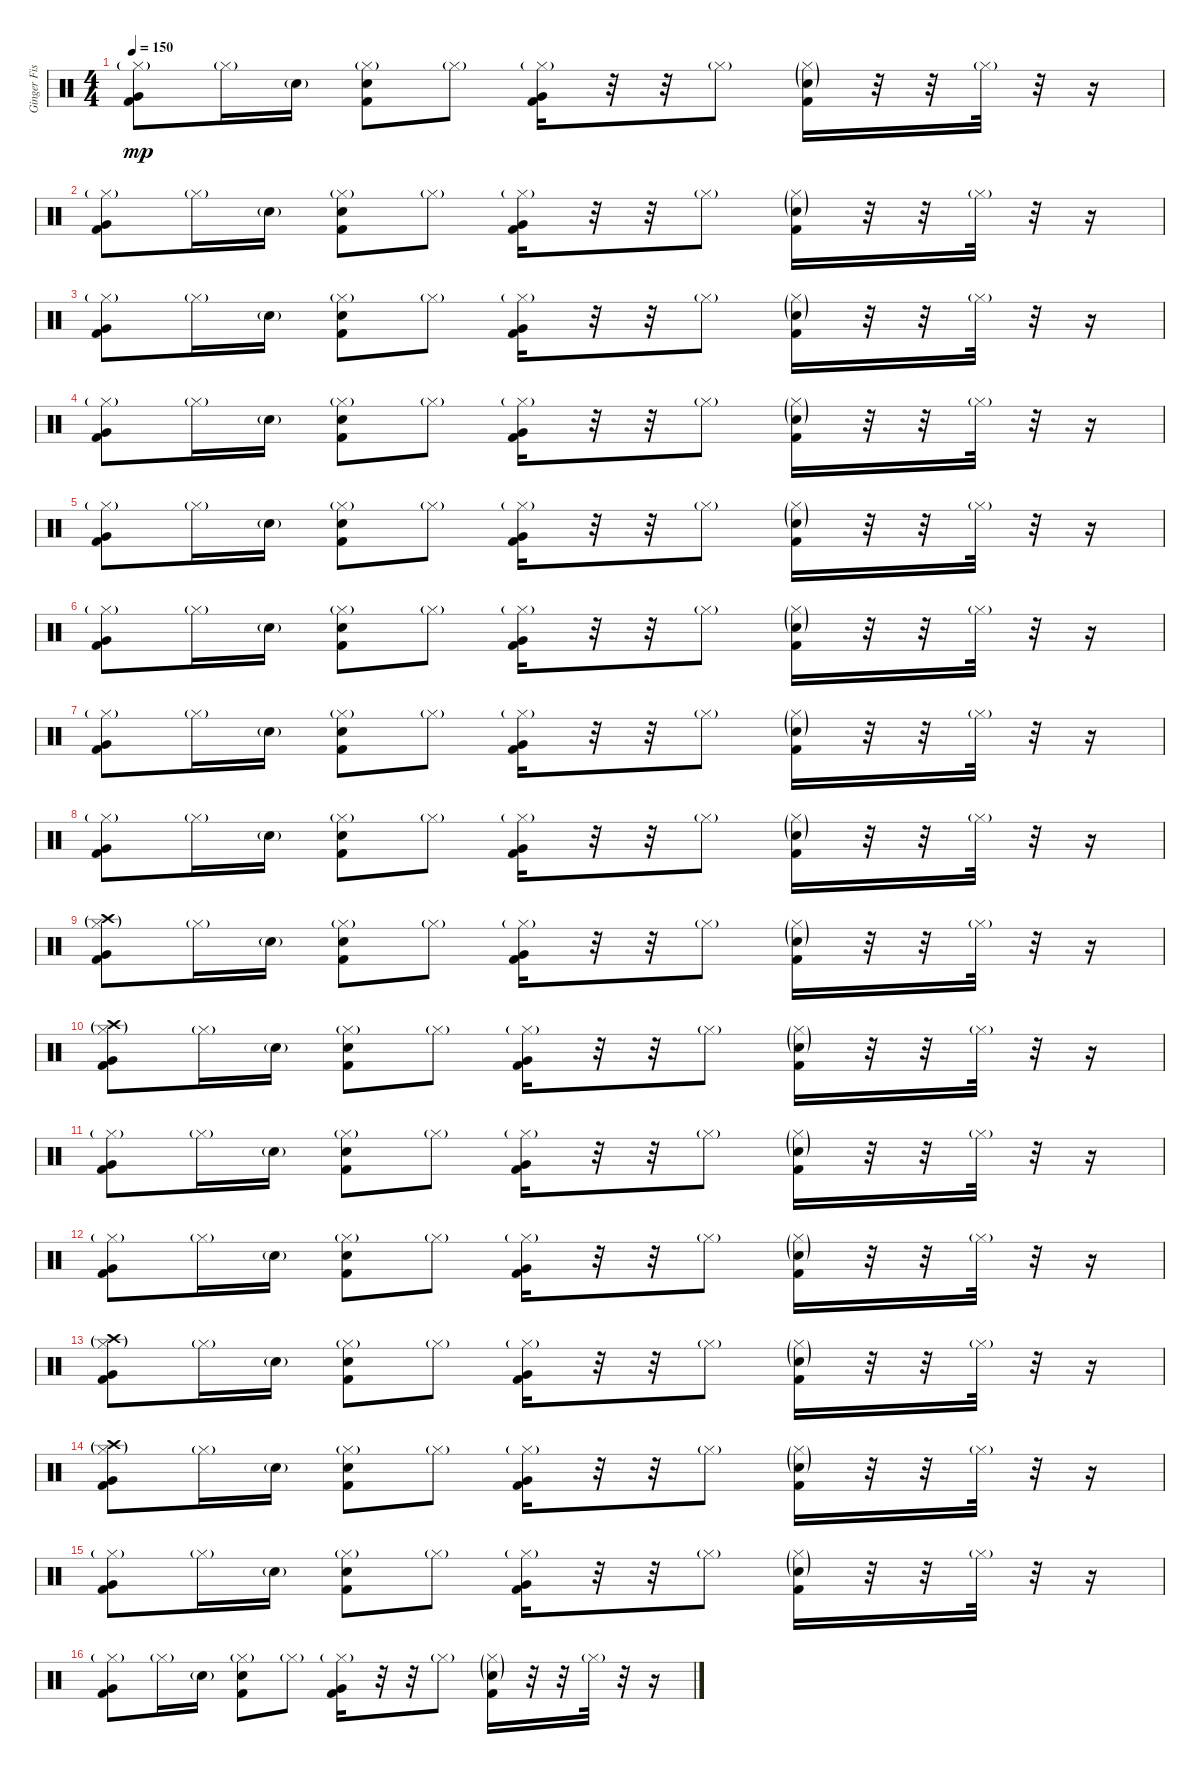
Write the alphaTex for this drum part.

\track ("Ginger Fish" "Ginger Fis") {instrument percussion}
\staff {score}
\articulation defaults
\ts (4 4)
\tempo 150
\clef neutral
\ks c
("Hi-Hat (closed)"{g} "Very Low Tom (hit)" "Kick (hit) 2").8{dy mp} "Hi-Hat (closed)"{g}.16 "Electric Snare (hit)"{g}.16 ("Hi-Hat (closed)"{g} "Electric Snare (hit)" "Kick (hit) 2").8 "Hi-Hat (closed)"{g}.8 ("Hi-Hat (closed)"{g} "Very Low Tom (hit)" "Kick (hit) 2").16 r.32 r.32 "Hi-Hat (closed)"{g}.8 ("Hi-Hat (closed)"{g} "Electric Snare (hit)"{g} "Kick (hit) 2").16 r.32 r.32 "Hi-Hat (closed)"{g}.32 r.32 r.16 |
("Hi-Hat (closed)"{g} "Very Low Tom (hit)" "Kick (hit) 2").8 "Hi-Hat (closed)"{g}.16 "Electric Snare (hit)"{g}.16 ("Hi-Hat (closed)"{g} "Electric Snare (hit)" "Kick (hit) 2").8 "Hi-Hat (closed)"{g}.8 ("Hi-Hat (closed)"{g} "Very Low Tom (hit)" "Kick (hit) 2").16 r.32 r.32 "Hi-Hat (closed)"{g}.8 ("Hi-Hat (closed)"{g} "Electric Snare (hit)"{g} "Kick (hit) 2").16 r.32 r.32 "Hi-Hat (closed)"{g}.32 r.32 r.16 |
("Hi-Hat (closed)"{g} "Very Low Tom (hit)" "Kick (hit) 2").8 "Hi-Hat (closed)"{g}.16 "Electric Snare (hit)"{g}.16 ("Hi-Hat (closed)"{g} "Electric Snare (hit)" "Kick (hit) 2").8 "Hi-Hat (closed)"{g}.8 ("Hi-Hat (closed)"{g} "Very Low Tom (hit)" "Kick (hit) 2").16 r.32 r.32 "Hi-Hat (closed)"{g}.8 ("Hi-Hat (closed)"{g} "Electric Snare (hit)"{g} "Kick (hit) 2").16 r.32 r.32 "Hi-Hat (closed)"{g}.32 r.32 r.16 |
("Hi-Hat (closed)"{g} "Very Low Tom (hit)" "Kick (hit) 2").8 "Hi-Hat (closed)"{g}.16 "Electric Snare (hit)"{g}.16 ("Hi-Hat (closed)"{g} "Electric Snare (hit)" "Kick (hit) 2").8 "Hi-Hat (closed)"{g}.8 ("Hi-Hat (closed)"{g} "Very Low Tom (hit)" "Kick (hit) 2").16 r.32 r.32 "Hi-Hat (closed)"{g}.8 ("Hi-Hat (closed)"{g} "Electric Snare (hit)"{g} "Kick (hit) 2").16 r.32 r.32 "Hi-Hat (closed)"{g}.32 r.32 r.16 |
("Hi-Hat (closed)"{g} "Very Low Tom (hit)" "Kick (hit) 2").8 "Hi-Hat (closed)"{g}.16 "Electric Snare (hit)"{g}.16 ("Hi-Hat (closed)"{g} "Electric Snare (hit)" "Kick (hit) 2").8 "Hi-Hat (closed)"{g}.8 ("Hi-Hat (closed)"{g} "Very Low Tom (hit)" "Kick (hit) 2").16 r.32 r.32 "Hi-Hat (closed)"{g}.8 ("Hi-Hat (closed)"{g} "Electric Snare (hit)"{g} "Kick (hit) 2").16 r.32 r.32 "Hi-Hat (closed)"{g}.32 r.32 r.16 |
("Hi-Hat (closed)"{g} "Very Low Tom (hit)" "Kick (hit) 2").8 "Hi-Hat (closed)"{g}.16 "Electric Snare (hit)"{g}.16 ("Hi-Hat (closed)"{g} "Electric Snare (hit)" "Kick (hit) 2").8 "Hi-Hat (closed)"{g}.8 ("Hi-Hat (closed)"{g} "Very Low Tom (hit)" "Kick (hit) 2").16 r.32 r.32 "Hi-Hat (closed)"{g}.8 ("Hi-Hat (closed)"{g} "Electric Snare (hit)"{g} "Kick (hit) 2").16 r.32 r.32 "Hi-Hat (closed)"{g}.32 r.32 r.16 |
("Hi-Hat (closed)"{g} "Very Low Tom (hit)" "Kick (hit) 2").8 "Hi-Hat (closed)"{g}.16 "Electric Snare (hit)"{g}.16 ("Hi-Hat (closed)"{g} "Electric Snare (hit)" "Kick (hit) 2").8 "Hi-Hat (closed)"{g}.8 ("Hi-Hat (closed)"{g} "Very Low Tom (hit)" "Kick (hit) 2").16 r.32 r.32 "Hi-Hat (closed)"{g}.8 ("Hi-Hat (closed)"{g} "Electric Snare (hit)"{g} "Kick (hit) 2").16 r.32 r.32 "Hi-Hat (closed)"{g}.32 r.32 r.16 |
("Hi-Hat (closed)"{g} "Very Low Tom (hit)" "Kick (hit) 2").8 "Hi-Hat (closed)"{g}.16 "Electric Snare (hit)"{g}.16 ("Hi-Hat (closed)"{g} "Electric Snare (hit)" "Kick (hit) 2").8 "Hi-Hat (closed)"{g}.8 ("Hi-Hat (closed)"{g} "Very Low Tom (hit)" "Kick (hit) 2").16 r.32 r.32 "Hi-Hat (closed)"{g}.8 ("Hi-Hat (closed)"{g} "Electric Snare (hit)"{g} "Kick (hit) 2").16 r.32 r.32 "Hi-Hat (closed)"{g}.32 r.32 r.16 |
("Hi-Hat (closed)"{g} "Crash high (hit)"{g} "Very Low Tom (hit)" "Kick (hit) 2").8 "Hi-Hat (closed)"{g}.16 "Electric Snare (hit)"{g}.16 ("Hi-Hat (closed)"{g} "Electric Snare (hit)" "Kick (hit) 2").8 "Hi-Hat (closed)"{g}.8 ("Hi-Hat (closed)"{g} "Very Low Tom (hit)" "Kick (hit) 2").16 r.32 r.32 "Hi-Hat (closed)"{g}.8 ("Hi-Hat (closed)"{g} "Electric Snare (hit)"{g} "Kick (hit) 2").16 r.32 r.32 "Hi-Hat (closed)"{g}.32 r.32 r.16 |
("Hi-Hat (closed)"{g} "Crash high (hit)"{g} "Very Low Tom (hit)" "Kick (hit) 2").8 "Hi-Hat (closed)"{g}.16 "Electric Snare (hit)"{g}.16 ("Hi-Hat (closed)"{g} "Electric Snare (hit)" "Kick (hit) 2").8 "Hi-Hat (closed)"{g}.8 ("Hi-Hat (closed)"{g} "Very Low Tom (hit)" "Kick (hit) 2").16 r.32 r.32 "Hi-Hat (closed)"{g}.8 ("Hi-Hat (closed)"{g} "Electric Snare (hit)"{g} "Kick (hit) 2").16 r.32 r.32 "Hi-Hat (closed)"{g}.32 r.32 r.16 |
("Hi-Hat (closed)"{g} "Very Low Tom (hit)" "Kick (hit) 2").8 "Hi-Hat (closed)"{g}.16 "Electric Snare (hit)"{g}.16 ("Hi-Hat (closed)"{g} "Electric Snare (hit)" "Kick (hit) 2").8 "Hi-Hat (closed)"{g}.8 ("Hi-Hat (closed)"{g} "Very Low Tom (hit)" "Kick (hit) 2").16 r.32 r.32 "Hi-Hat (closed)"{g}.8 ("Hi-Hat (closed)"{g} "Electric Snare (hit)"{g} "Kick (hit) 2").16 r.32 r.32 "Hi-Hat (closed)"{g}.32 r.32 r.16 |
("Hi-Hat (closed)"{g} "Very Low Tom (hit)" "Kick (hit) 2").8 "Hi-Hat (closed)"{g}.16 "Electric Snare (hit)"{g}.16 ("Hi-Hat (closed)"{g} "Electric Snare (hit)" "Kick (hit) 2").8 "Hi-Hat (closed)"{g}.8 ("Hi-Hat (closed)"{g} "Very Low Tom (hit)" "Kick (hit) 2").16 r.32 r.32 "Hi-Hat (closed)"{g}.8 ("Hi-Hat (closed)"{g} "Electric Snare (hit)"{g} "Kick (hit) 2").16 r.32 r.32 "Hi-Hat (closed)"{g}.32 r.32 r.16 |
("Hi-Hat (closed)"{g} "Crash high (hit)"{g} "Very Low Tom (hit)" "Kick (hit) 2").8 "Hi-Hat (closed)"{g}.16 "Electric Snare (hit)"{g}.16 ("Hi-Hat (closed)"{g} "Electric Snare (hit)" "Kick (hit) 2").8 "Hi-Hat (closed)"{g}.8 ("Hi-Hat (closed)"{g} "Very Low Tom (hit)" "Kick (hit) 2").16 r.32 r.32 "Hi-Hat (closed)"{g}.8 ("Hi-Hat (closed)"{g} "Electric Snare (hit)"{g} "Kick (hit) 2").16 r.32 r.32 "Hi-Hat (closed)"{g}.32 r.32 r.16 |
("Hi-Hat (closed)"{g} "Crash high (hit)"{g} "Very Low Tom (hit)" "Kick (hit) 2").8 "Hi-Hat (closed)"{g}.16 "Electric Snare (hit)"{g}.16 ("Hi-Hat (closed)"{g} "Electric Snare (hit)" "Kick (hit) 2").8 "Hi-Hat (closed)"{g}.8 ("Hi-Hat (closed)"{g} "Very Low Tom (hit)" "Kick (hit) 2").16 r.32 r.32 "Hi-Hat (closed)"{g}.8 ("Hi-Hat (closed)"{g} "Electric Snare (hit)"{g} "Kick (hit) 2").16 r.32 r.32 "Hi-Hat (closed)"{g}.32 r.32 r.16 |
("Hi-Hat (closed)"{g} "Very Low Tom (hit)" "Kick (hit) 2").8 "Hi-Hat (closed)"{g}.16 "Electric Snare (hit)"{g}.16 ("Hi-Hat (closed)"{g} "Electric Snare (hit)" "Kick (hit) 2").8 "Hi-Hat (closed)"{g}.8 ("Hi-Hat (closed)"{g} "Very Low Tom (hit)" "Kick (hit) 2").16 r.32 r.32 "Hi-Hat (closed)"{g}.8 ("Hi-Hat (closed)"{g} "Electric Snare (hit)"{g} "Kick (hit) 2").16 r.32 r.32 "Hi-Hat (closed)"{g}.32 r.32 r.16 |
("Hi-Hat (closed)"{g} "Very Low Tom (hit)" "Kick (hit) 2").8 "Hi-Hat (closed)"{g}.16 "Electric Snare (hit)"{g}.16 ("Hi-Hat (closed)"{g} "Electric Snare (hit)" "Kick (hit) 2").8 "Hi-Hat (closed)"{g}.8 ("Hi-Hat (closed)"{g} "Very Low Tom (hit)" "Kick (hit) 2").16 r.32 r.32 "Hi-Hat (closed)"{g}.8 ("Hi-Hat (closed)"{g} "Electric Snare (hit)"{g} "Kick (hit) 2").16 r.32 r.32 "Hi-Hat (closed)"{g}.32 r.32 r.16
